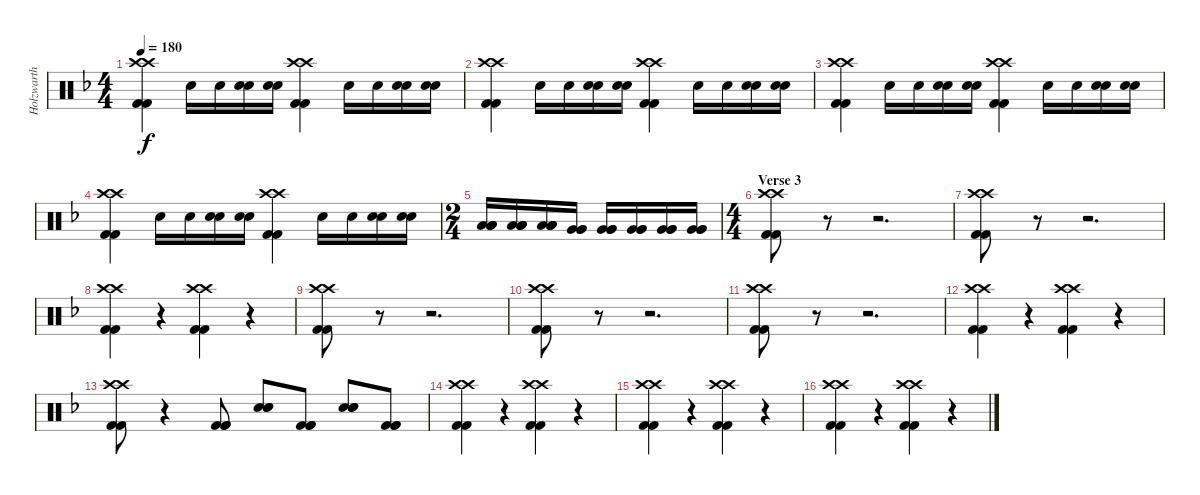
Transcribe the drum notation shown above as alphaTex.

\track ("Holzwarth" "Holzwarth") {instrument percussion}
\staff {score}
\articulation defaults
\ts (4 4)
\tempo 180
\clef neutral
\ks dminor
("Kick (hit) 2" "Kick (hit) 2" "Crash high (hit)" "Crash high (hit)").4{dy f} "Snare (hit) 2".16 "Snare (hit) 2".16 ("Snare (hit) 2" "Snare (hit) 2").16 ("Snare (hit) 2" "Snare (hit) 2").16 ("Kick (hit) 2" "Kick (hit) 2" "Crash high (hit)" "Crash high (hit)").4 "Snare (hit) 2".16 "Snare (hit) 2".16 ("Snare (hit) 2" "Snare (hit) 2").16 ("Snare (hit) 2" "Snare (hit) 2").16 |
("Kick (hit) 2" "Kick (hit) 2" "Crash high (hit)" "Crash high (hit)").4 "Snare (hit) 2".16 "Snare (hit) 2".16 ("Snare (hit) 2" "Snare (hit) 2").16 ("Snare (hit) 2" "Snare (hit) 2").16 ("Kick (hit) 2" "Kick (hit) 2" "Crash high (hit)" "Crash high (hit)").4 "Snare (hit) 2".16 "Snare (hit) 2".16 ("Snare (hit) 2" "Snare (hit) 2").16 ("Snare (hit) 2" "Snare (hit) 2").16 |
("Kick (hit) 2" "Kick (hit) 2" "Crash high (hit)" "Crash high (hit)").4 "Snare (hit) 2".16 "Snare (hit) 2".16 ("Snare (hit) 2" "Snare (hit) 2").16 ("Snare (hit) 2" "Snare (hit) 2").16 ("Kick (hit) 2" "Kick (hit) 2" "Crash high (hit)" "Crash high (hit)").4 "Snare (hit) 2".16 "Snare (hit) 2".16 ("Snare (hit) 2" "Snare (hit) 2").16 ("Snare (hit) 2" "Snare (hit) 2").16 |
("Kick (hit) 2" "Kick (hit) 2" "Crash high (hit)" "Crash high (hit)").4 "Snare (hit) 2".16 "Snare (hit) 2".16 ("Snare (hit) 2" "Snare (hit) 2").16 ("Snare (hit) 2" "Snare (hit) 2").16 ("Kick (hit) 2" "Kick (hit) 2" "Crash high (hit)" "Crash high (hit)").4 "Snare (hit) 2".16 "Snare (hit) 2".16 ("Snare (hit) 2" "Snare (hit) 2").16 ("Snare (hit) 2" "Snare (hit) 2").16 |
\ts (2 4)
("Low Floor Tom (hit)" "Low Floor Tom (hit)" "Low Floor Tom (hit)" "Low Floor Tom (hit)").16 ("Low Floor Tom (hit)" "Low Floor Tom (hit)" "Low Floor Tom (hit)" "Low Floor Tom (hit)").16 ("Low Floor Tom (hit)" "Low Floor Tom (hit)" "Low Floor Tom (hit)" "Low Floor Tom (hit)").16 ("Very Low Tom (hit)" "Very Low Tom (hit)" "Very Low Tom (hit)").16 ("Very Low Tom (hit)" "Very Low Tom (hit)" "Very Low Tom (hit)").16 ("Very Low Tom (hit)" "Very Low Tom (hit)" "Very Low Tom (hit)").16 ("Very Low Tom (hit)" "Very Low Tom (hit)" "Very Low Tom (hit)").16 ("Very Low Tom (hit)" "Very Low Tom (hit)" "Very Low Tom (hit)").16 |
\ts (4 4)
\section ("" "Verse 3")
("Kick (hit) 2" "Kick (hit) 2" "Crash high (hit)" "Crash high (hit)").8 r.8 r.2{d} |
("Kick (hit) 2" "Kick (hit) 2" "Crash high (hit)" "Crash high (hit)").8 r.8 r.2{d} |
("Kick (hit) 2" "Kick (hit) 2" "Crash high (hit)" "Crash high (hit)").4 r.4 ("Kick (hit) 2" "Kick (hit) 2" "Crash high (hit)" "Crash high (hit)").4 r.4 |
("Kick (hit) 2" "Kick (hit) 2" "Crash high (hit)" "Crash high (hit)").8 r.8 r.2{d} |
("Kick (hit) 2" "Kick (hit) 2" "Crash high (hit)" "Crash high (hit)").8 r.8 r.2{d} |
("Kick (hit) 2" "Kick (hit) 2" "Crash high (hit)" "Crash high (hit)").8 r.8 r.2{d} |
("Kick (hit) 2" "Kick (hit) 2" "Crash high (hit)" "Crash high (hit)").4 r.4 ("Kick (hit) 2" "Kick (hit) 2" "Crash high (hit)" "Crash high (hit)").4 r.4 |
("Kick (hit) 2" "Kick (hit) 2" "Crash high (hit)" "Crash high (hit)").8 r.4 ("Kick (hit) 2" "Kick (hit) 2" "Kick (hit) 2").8 ("Snare (hit) 2" "Snare (hit) 2" "Snare (hit) 2").8 ("Kick (hit) 2" "Kick (hit) 2" "Kick (hit) 2").8 ("Snare (hit) 2" "Snare (hit) 2" "Snare (hit) 2").8 ("Kick (hit) 2" "Kick (hit) 2" "Kick (hit) 2").8 |
("Kick (hit) 2" "Kick (hit) 2" "Crash high (hit)" "Crash high (hit)").4 r.4 ("Kick (hit) 2" "Kick (hit) 2" "Crash high (hit)" "Crash high (hit)").4 r.4 |
("Kick (hit) 2" "Kick (hit) 2" "Crash high (hit)" "Crash high (hit)").4 r.4 ("Kick (hit) 2" "Kick (hit) 2" "Crash high (hit)" "Crash high (hit)").4 r.4 |
("Kick (hit) 2" "Kick (hit) 2" "Crash high (hit)" "Crash high (hit)").4 r.4 ("Kick (hit) 2" "Kick (hit) 2" "Crash high (hit)" "Crash high (hit)").4 r.4
